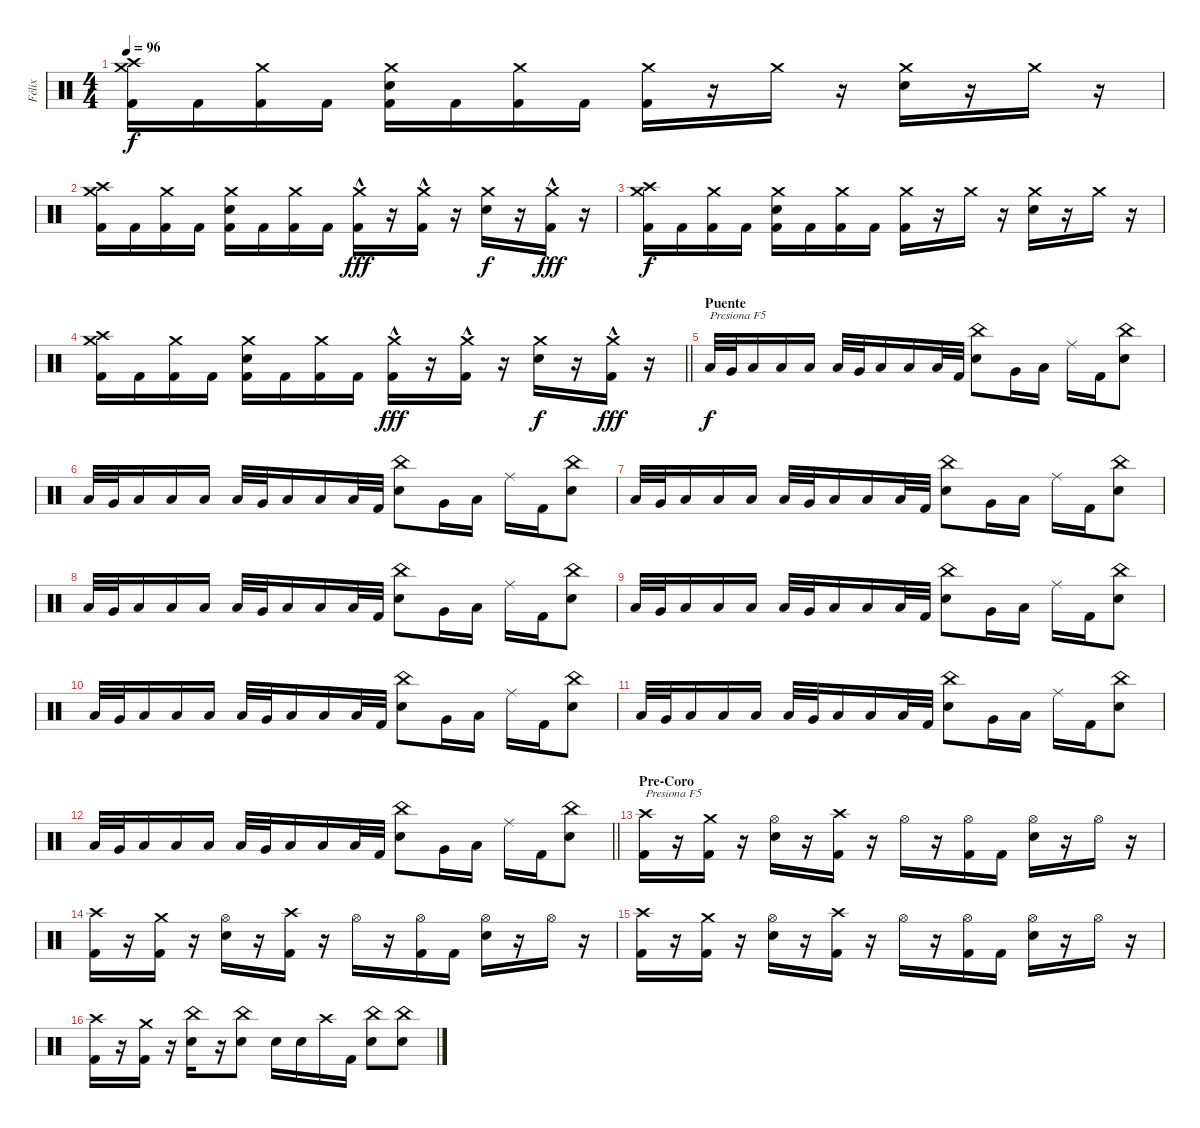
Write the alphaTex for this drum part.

\track ("Félix" "Félix") {instrument percussion}
\staff {score}
\articulation defaults
\ts (4 4)
\tempo 96
\clef neutral
\ks c
("Crash high (hit)" "Crash medium (hit)" "Kick (hit) 2").16{dy f} "Kick (hit) 2".16 ("Crash medium (hit)" "Kick (hit) 2").16 "Kick (hit) 2".16 ("Crash medium (hit)" "Snare (hit) 2" "Kick (hit) 2").16 "Kick (hit) 2".16 ("Crash medium (hit)" "Kick (hit) 2").16 "Kick (hit) 2".16 ("Crash medium (hit)" "Kick (hit) 2").16 r.16 "Crash medium (hit)".16 r.16 ("Crash medium (hit)" "Snare (hit) 2").16 r.16 "Crash medium (hit)".16 r.16 |
("Crash high (hit)" "Crash medium (hit)" "Kick (hit) 2").16 "Kick (hit) 2".16 ("Crash medium (hit)" "Kick (hit) 2").16 "Kick (hit) 2".16 ("Crash medium (hit)" "Snare (hit) 2" "Kick (hit) 2").16 "Kick (hit) 2".16 ("Crash medium (hit)" "Kick (hit) 2").16 "Kick (hit) 2".16 ("Crash medium (hit)" "Kick (hit) 2"{hac}).16{dy fff} r.16 ("Crash medium (hit)" "Kick (hit) 2"{hac}).16 r.16 ("Crash medium (hit)" "Snare (hit) 2").16{dy f} r.16 ("Crash medium (hit)" "Kick (hit) 2"{hac}).16{dy fff} r.16 |
("Crash high (hit)" "Crash medium (hit)" "Kick (hit) 2").16{dy f} "Kick (hit) 2".16 ("Crash medium (hit)" "Kick (hit) 2").16 "Kick (hit) 2".16 ("Crash medium (hit)" "Snare (hit) 2" "Kick (hit) 2").16 "Kick (hit) 2".16 ("Crash medium (hit)" "Kick (hit) 2").16 "Kick (hit) 2".16 ("Crash medium (hit)" "Kick (hit) 2").16 r.16 "Crash medium (hit)".16 r.16 ("Crash medium (hit)" "Snare (hit) 2").16 r.16 "Crash medium (hit)".16 r.16 |
\barLineRight lightlight
("Crash high (hit)" "Crash medium (hit)" "Kick (hit) 2").16 "Kick (hit) 2".16 ("Crash medium (hit)" "Kick (hit) 2").16 "Kick (hit) 2".16 ("Crash medium (hit)" "Snare (hit) 2" "Kick (hit) 2").16 "Kick (hit) 2".16 ("Crash medium (hit)" "Kick (hit) 2").16 "Kick (hit) 2".16 ("Crash medium (hit)" "Kick (hit) 2"{hac}).16{dy fff} r.16 ("Crash medium (hit)" "Kick (hit) 2"{hac}).16 r.16 ("Crash medium (hit)" "Snare (hit) 2").16{dy f} r.16 ("Crash medium (hit)" "Kick (hit) 2"{hac}).16{dy fff} r.16 |
\section ("" "Puente")
"Low Floor Tom (hit)".32{txt "Presiona F5" dy f} "Very Low Tom (hit)".32 "Low Floor Tom (hit)".16 "Low Floor Tom (hit)".16 "Low Floor Tom (hit)".16 "Low Floor Tom (hit)".32 "Very Low Tom (hit)".32 "Low Floor Tom (hit)".16 "Low Floor Tom (hit)".16 "Low Floor Tom (hit)".32 "Kick (hit) 2".32 ("China (hit)" "Snare (hit) 2").8 "Very Low Tom (hit)".16 "Low Tom (hit)".16 "Ride (middle)".16 "Kick (hit) 2".16 ("China (hit)" "Snare (hit) 2").8 |
"Low Floor Tom (hit)".32 "Very Low Tom (hit)".32 "Low Floor Tom (hit)".16 "Low Floor Tom (hit)".16 "Low Floor Tom (hit)".16 "Low Floor Tom (hit)".32 "Very Low Tom (hit)".32 "Low Floor Tom (hit)".16 "Low Floor Tom (hit)".16 "Low Floor Tom (hit)".32 "Kick (hit) 2".32 ("China (hit)" "Snare (hit) 2").8 "Very Low Tom (hit)".16 "Low Tom (hit)".16 "Ride (middle)".16 "Kick (hit) 2".16 ("China (hit)" "Snare (hit) 2").8 |
"Low Floor Tom (hit)".32 "Very Low Tom (hit)".32 "Low Floor Tom (hit)".16 "Low Floor Tom (hit)".16 "Low Floor Tom (hit)".16 "Low Floor Tom (hit)".32 "Very Low Tom (hit)".32 "Low Floor Tom (hit)".16 "Low Floor Tom (hit)".16 "Low Floor Tom (hit)".32 "Kick (hit) 2".32 ("China (hit)" "Snare (hit) 2").8 "Very Low Tom (hit)".16 "Low Tom (hit)".16 "Ride (middle)".16 "Kick (hit) 2".16 ("China (hit)" "Snare (hit) 2").8 |
"Low Floor Tom (hit)".32 "Very Low Tom (hit)".32 "Low Floor Tom (hit)".16 "Low Floor Tom (hit)".16 "Low Floor Tom (hit)".16 "Low Floor Tom (hit)".32 "Very Low Tom (hit)".32 "Low Floor Tom (hit)".16 "Low Floor Tom (hit)".16 "Low Floor Tom (hit)".32 "Kick (hit) 2".32 ("China (hit)" "Snare (hit) 2").8 "Very Low Tom (hit)".16 "Low Tom (hit)".16 "Ride (middle)".16 "Kick (hit) 2".16 ("China (hit)" "Snare (hit) 2").8 |
"Low Floor Tom (hit)".32 "Very Low Tom (hit)".32 "Low Floor Tom (hit)".16 "Low Floor Tom (hit)".16 "Low Floor Tom (hit)".16 "Low Floor Tom (hit)".32 "Very Low Tom (hit)".32 "Low Floor Tom (hit)".16 "Low Floor Tom (hit)".16 "Low Floor Tom (hit)".32 "Kick (hit) 2".32 ("China (hit)" "Snare (hit) 2").8 "Very Low Tom (hit)".16 "Low Tom (hit)".16 "Ride (middle)".16 "Kick (hit) 2".16 ("China (hit)" "Snare (hit) 2").8 |
"Low Floor Tom (hit)".32 "Very Low Tom (hit)".32 "Low Floor Tom (hit)".16 "Low Floor Tom (hit)".16 "Low Floor Tom (hit)".16 "Low Floor Tom (hit)".32 "Very Low Tom (hit)".32 "Low Floor Tom (hit)".16 "Low Floor Tom (hit)".16 "Low Floor Tom (hit)".32 "Kick (hit) 2".32 ("China (hit)" "Snare (hit) 2").8 "Very Low Tom (hit)".16 "Low Tom (hit)".16 "Ride (middle)".16 "Kick (hit) 2".16 ("China (hit)" "Snare (hit) 2").8 |
"Low Floor Tom (hit)".32 "Very Low Tom (hit)".32 "Low Floor Tom (hit)".16 "Low Floor Tom (hit)".16 "Low Floor Tom (hit)".16 "Low Floor Tom (hit)".32 "Very Low Tom (hit)".32 "Low Floor Tom (hit)".16 "Low Floor Tom (hit)".16 "Low Floor Tom (hit)".32 "Kick (hit) 2".32 ("China (hit)" "Snare (hit) 2").8 "Very Low Tom (hit)".16 "Low Tom (hit)".16 "Ride (middle)".16 "Kick (hit) 2".16 ("China (hit)" "Snare (hit) 2").8 |
\barLineRight lightlight "Low Floor Tom (hit)".32 "Very Low Tom (hit)".32 "Low Floor Tom (hit)".16 "Low Floor Tom (hit)".16 "Low Floor Tom (hit)".16 "Low Floor Tom (hit)".32 "Very Low Tom (hit)".32 "Low Floor Tom (hit)".16 "Low Floor Tom (hit)".16 "Low Floor Tom (hit)".32 "Kick (hit) 2".32
("China (hit)" "Snare (hit) 2").8 "Very Low Tom (hit)".16 "Low Tom (hit)".16 "Ride (middle)".16 "Kick (hit) 2".16 ("China (hit)" "Snare (hit) 2").8 |
\section ("" "Pre-Coro")
("Crash high (hit)" "Kick (hit) 2").16{txt "Presiona F5"} r.16 ("Crash medium (hit)" "Kick (hit) 2").16 r.16 ("Hi-Hat (open)" "Snare (hit) 2").16 r.16 ("Crash high (hit)" "Kick (hit) 2").16 r.16 "Hi-Hat (open)".16 r.16 ("Hi-Hat (open)" "Kick (hit) 2").16 "Kick (hit) 2".16 ("Hi-Hat (open)" "Snare (hit) 2").16 r.16 "Hi-Hat (open)".16 r.16 |
("Crash high (hit)" "Kick (hit) 2").16 r.16 ("Crash medium (hit)" "Kick (hit) 2").16 r.16 ("Hi-Hat (open)" "Snare (hit) 2").16 r.16 ("Crash high (hit)" "Kick (hit) 2").16 r.16 "Hi-Hat (open)".16 r.16 ("Hi-Hat (open)" "Kick (hit) 2").16 "Kick (hit) 2".16 ("Hi-Hat (open)" "Snare (hit) 2").16 r.16 "Hi-Hat (open)".16 r.16 |
("Crash high (hit)" "Kick (hit) 2").16 r.16 ("Crash medium (hit)" "Kick (hit) 2").16 r.16 ("Hi-Hat (open)" "Snare (hit) 2").16 r.16 ("Crash high (hit)" "Kick (hit) 2").16 r.16 "Hi-Hat (open)".16 r.16 ("Hi-Hat (open)" "Kick (hit) 2").16 "Kick (hit) 2".16 ("Hi-Hat (open)" "Snare (hit) 2").16 r.16 "Hi-Hat (open)".16 r.16 |
("Crash high (hit)" "Kick (hit) 2").16 r.16 ("Crash medium (hit)" "Kick (hit) 2").16 r.16 ("China (hit)" "Snare (hit) 2").16 r.16 ("China (hit)" "Snare (hit) 2").8 "Snare (hit) 2".16 "Snare (hit) 2".16 "Crash high (hit)".16 "Kick (hit) 2".16 ("China (hit)" "Snare (hit) 2").8 ("China (hit)" "Snare (hit) 2").8
